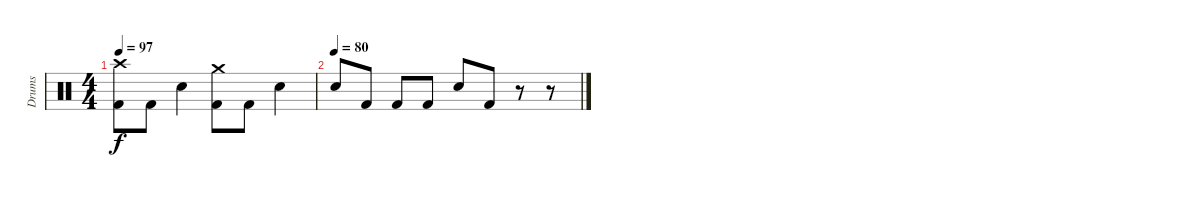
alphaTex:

\track ("Drums" "Drums") {instrument percussion}
\staff {score}
\articulation defaults
\ts (4 4)
\tempo 97
\clef neutral
\ks c
("Crash high (hit)" "Kick (hit) 2").8{dy f} "Kick (hit) 2".8 "Snare (hit) 2".4 ("Crash medium (hit)" "Kick (hit) 2").8 "Kick (hit) 2".8 "Snare (hit) 2".4 |
\tempo (80)
"Snare (hit) 2".8 "Kick (hit) 2".8 "Kick (hit) 2".8 "Kick (hit) 2".8 "Snare (hit) 2".8 "Kick (hit) 2".8 r.8 r.8
